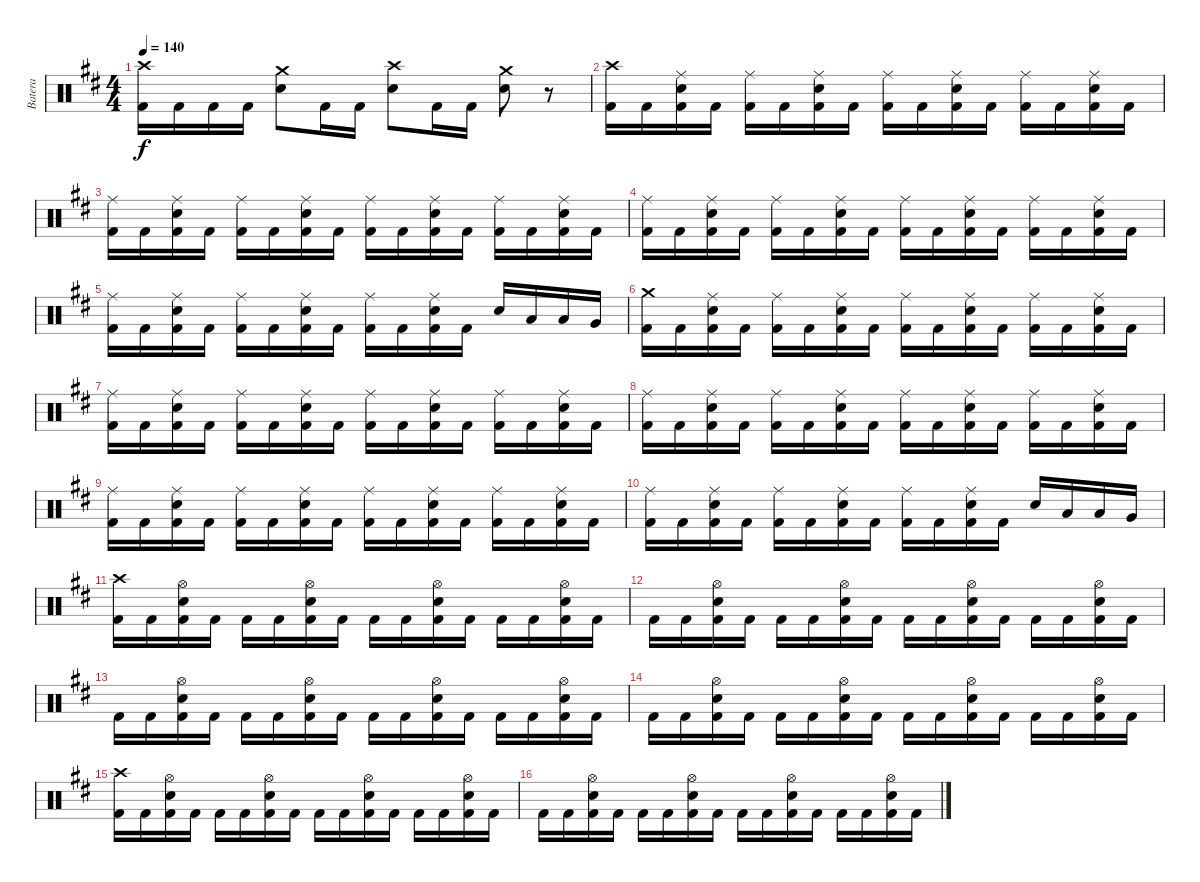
\track ("Batera" "Batera") {instrument percussion}
\staff {score}
\articulation defaults
\ts (4 4)
\tempo 140
\clef neutral
\ks bminor
("Crash high (hit)" "Kick (hit) 2").16{dy f} "Kick (hit) 2".16 "Kick (hit) 2".16 "Kick (hit) 2".16 ("Crash medium (hit)" "Electric Snare (hit)").8 "Kick (hit) 2".16 "Kick (hit) 2".16 ("Crash high (hit)" "Electric Snare (hit)").8 "Kick (hit) 2".16 "Kick (hit) 2".16 ("Crash medium (hit)" "Electric Snare (hit)").8 r.8 |
("Crash high (hit)" "Kick (hit) 2").16 "Kick (hit) 2".16 ("Ride (middle)" "Electric Snare (hit)" "Kick (hit) 2").16 "Kick (hit) 2".16 ("Ride (middle)" "Kick (hit) 2").16 "Kick (hit) 2".16 ("Ride (middle)" "Electric Snare (hit)" "Kick (hit) 2").16 "Kick (hit) 2".16 ("Ride (middle)" "Kick (hit) 2").16 "Kick (hit) 2".16 ("Ride (middle)" "Electric Snare (hit)" "Kick (hit) 2").16 "Kick (hit) 2".16 ("Ride (middle)" "Kick (hit) 2").16 "Kick (hit) 2".16 ("Ride (middle)" "Electric Snare (hit)" "Kick (hit) 2").16 "Kick (hit) 2".16 |
("Ride (middle)" "Kick (hit) 2").16 "Kick (hit) 2".16 ("Ride (middle)" "Electric Snare (hit)" "Kick (hit) 2").16 "Kick (hit) 2".16 ("Ride (middle)" "Kick (hit) 2").16 "Kick (hit) 2".16 ("Ride (middle)" "Electric Snare (hit)" "Kick (hit) 2").16 "Kick (hit) 2".16 ("Ride (middle)" "Kick (hit) 2").16 "Kick (hit) 2".16 ("Ride (middle)" "Electric Snare (hit)" "Kick (hit) 2").16 "Kick (hit) 2".16 ("Ride (middle)" "Kick (hit) 2").16 "Kick (hit) 2".16 ("Ride (middle)" "Electric Snare (hit)" "Kick (hit) 2").16 "Kick (hit) 2".16 |
("Ride (middle)" "Kick (hit) 2").16 "Kick (hit) 2".16 ("Ride (middle)" "Electric Snare (hit)" "Kick (hit) 2").16 "Kick (hit) 2".16 ("Ride (middle)" "Kick (hit) 2").16 "Kick (hit) 2".16 ("Ride (middle)" "Electric Snare (hit)" "Kick (hit) 2").16 "Kick (hit) 2".16 ("Ride (middle)" "Kick (hit) 2").16 "Kick (hit) 2".16 ("Ride (middle)" "Electric Snare (hit)" "Kick (hit) 2").16 "Kick (hit) 2".16 ("Ride (middle)" "Kick (hit) 2").16 "Kick (hit) 2".16 ("Ride (middle)" "Electric Snare (hit)" "Kick (hit) 2").16 "Kick (hit) 2".16 |
("Ride (middle)" "Kick (hit) 2").16 "Kick (hit) 2".16 ("Ride (middle)" "Electric Snare (hit)" "Kick (hit) 2").16 "Kick (hit) 2".16 ("Ride (middle)" "Kick (hit) 2").16 "Kick (hit) 2".16 ("Ride (middle)" "Electric Snare (hit)" "Kick (hit) 2").16 "Kick (hit) 2".16 ("Ride (middle)" "Kick (hit) 2").16 "Kick (hit) 2".16 ("Ride (middle)" "Electric Snare (hit)" "Kick (hit) 2").16 "Kick (hit) 2".16 "Electric Snare (hit)".16 "Low Floor Tom (hit)".16 "Low Tom (hit)".16 "Very Low Tom (hit)".16 |
("Crash medium (hit)" "Kick (hit) 2").16 "Kick (hit) 2".16 ("Ride (middle)" "Electric Snare (hit)" "Kick (hit) 2").16 "Kick (hit) 2".16 ("Ride (middle)" "Kick (hit) 2").16 "Kick (hit) 2".16 ("Ride (middle)" "Electric Snare (hit)" "Kick (hit) 2").16 "Kick (hit) 2".16 ("Ride (middle)" "Kick (hit) 2").16 "Kick (hit) 2".16 ("Ride (middle)" "Electric Snare (hit)" "Kick (hit) 2").16 "Kick (hit) 2".16 ("Ride (middle)" "Kick (hit) 2").16 "Kick (hit) 2".16 ("Ride (middle)" "Electric Snare (hit)" "Kick (hit) 2").16 "Kick (hit) 2".16 |
("Ride (middle)" "Kick (hit) 2").16 "Kick (hit) 2".16 ("Ride (middle)" "Electric Snare (hit)" "Kick (hit) 2").16 "Kick (hit) 2".16 ("Ride (middle)" "Kick (hit) 2").16 "Kick (hit) 2".16 ("Ride (middle)" "Electric Snare (hit)" "Kick (hit) 2").16 "Kick (hit) 2".16 ("Ride (middle)" "Kick (hit) 2").16 "Kick (hit) 2".16 ("Ride (middle)" "Electric Snare (hit)" "Kick (hit) 2").16 "Kick (hit) 2".16 ("Ride (middle)" "Kick (hit) 2").16 "Kick (hit) 2".16 ("Ride (middle)" "Electric Snare (hit)" "Kick (hit) 2").16 "Kick (hit) 2".16 |
("Ride (middle)" "Kick (hit) 2").16 "Kick (hit) 2".16 ("Ride (middle)" "Electric Snare (hit)" "Kick (hit) 2").16 "Kick (hit) 2".16 ("Ride (middle)" "Kick (hit) 2").16 "Kick (hit) 2".16 ("Ride (middle)" "Electric Snare (hit)" "Kick (hit) 2").16 "Kick (hit) 2".16 ("Ride (middle)" "Kick (hit) 2").16 "Kick (hit) 2".16 ("Ride (middle)" "Electric Snare (hit)" "Kick (hit) 2").16 "Kick (hit) 2".16 ("Ride (middle)" "Kick (hit) 2").16 "Kick (hit) 2".16 ("Ride (middle)" "Electric Snare (hit)" "Kick (hit) 2").16 "Kick (hit) 2".16 |
("Ride (middle)" "Kick (hit) 2").16 "Kick (hit) 2".16 ("Ride (middle)" "Electric Snare (hit)" "Kick (hit) 2").16 "Kick (hit) 2".16 ("Ride (middle)" "Kick (hit) 2").16 "Kick (hit) 2".16 ("Ride (middle)" "Electric Snare (hit)" "Kick (hit) 2").16 "Kick (hit) 2".16 ("Ride (middle)" "Kick (hit) 2").16 "Kick (hit) 2".16 ("Ride (middle)" "Electric Snare (hit)" "Kick (hit) 2").16 "Kick (hit) 2".16 ("Ride (middle)" "Kick (hit) 2").16 "Kick (hit) 2".16 ("Ride (middle)" "Electric Snare (hit)" "Kick (hit) 2").16 "Kick (hit) 2".16 |
("Ride (middle)" "Kick (hit) 2").16 "Kick (hit) 2".16 ("Ride (middle)" "Electric Snare (hit)" "Kick (hit) 2").16 "Kick (hit) 2".16 ("Ride (middle)" "Kick (hit) 2").16 "Kick (hit) 2".16 ("Ride (middle)" "Electric Snare (hit)" "Kick (hit) 2").16 "Kick (hit) 2".16 ("Ride (middle)" "Kick (hit) 2").16 "Kick (hit) 2".16 ("Ride (middle)" "Electric Snare (hit)" "Kick (hit) 2").16 "Kick (hit) 2".16 "Electric Snare (hit)".16 "Low Floor Tom (hit)".16 "Low Tom (hit)".16 "Very Low Tom (hit)".16 |
("Crash high (hit)" "Kick (hit) 2").16 "Kick (hit) 2".16 ("Hi-Hat (open)" "Electric Snare (hit)" "Kick (hit) 2").16 "Kick (hit) 2".16 "Kick (hit) 2".16 "Kick (hit) 2".16 ("Hi-Hat (open)" "Electric Snare (hit)" "Kick (hit) 2").16 "Kick (hit) 2".16 "Kick (hit) 2".16 "Kick (hit) 2".16 ("Hi-Hat (open)" "Electric Snare (hit)" "Kick (hit) 2").16 "Kick (hit) 2".16 "Kick (hit) 2".16 "Kick (hit) 2".16 ("Hi-Hat (open)" "Electric Snare (hit)" "Kick (hit) 2").16 "Kick (hit) 2".16 |
"Kick (hit) 2".16 "Kick (hit) 2".16 ("Hi-Hat (open)" "Electric Snare (hit)" "Kick (hit) 2").16 "Kick (hit) 2".16 "Kick (hit) 2".16 "Kick (hit) 2".16 ("Hi-Hat (open)" "Electric Snare (hit)" "Kick (hit) 2").16 "Kick (hit) 2".16 "Kick (hit) 2".16 "Kick (hit) 2".16 ("Hi-Hat (open)" "Electric Snare (hit)" "Kick (hit) 2").16 "Kick (hit) 2".16 "Kick (hit) 2".16 "Kick (hit) 2".16 ("Hi-Hat (open)" "Electric Snare (hit)" "Kick (hit) 2").16 "Kick (hit) 2".16 |
"Kick (hit) 2".16 "Kick (hit) 2".16 ("Hi-Hat (open)" "Electric Snare (hit)" "Kick (hit) 2").16 "Kick (hit) 2".16 "Kick (hit) 2".16 "Kick (hit) 2".16 ("Hi-Hat (open)" "Electric Snare (hit)" "Kick (hit) 2").16 "Kick (hit) 2".16 "Kick (hit) 2".16 "Kick (hit) 2".16 ("Hi-Hat (open)" "Electric Snare (hit)" "Kick (hit) 2").16 "Kick (hit) 2".16 "Kick (hit) 2".16 "Kick (hit) 2".16 ("Hi-Hat (open)" "Electric Snare (hit)" "Kick (hit) 2").16 "Kick (hit) 2".16 |
"Kick (hit) 2".16 "Kick (hit) 2".16 ("Hi-Hat (open)" "Electric Snare (hit)" "Kick (hit) 2").16 "Kick (hit) 2".16 "Kick (hit) 2".16 "Kick (hit) 2".16 ("Hi-Hat (open)" "Electric Snare (hit)" "Kick (hit) 2").16 "Kick (hit) 2".16 "Kick (hit) 2".16 "Kick (hit) 2".16 ("Hi-Hat (open)" "Electric Snare (hit)" "Kick (hit) 2").16 "Kick (hit) 2".16 "Kick (hit) 2".16 "Kick (hit) 2".16 ("Hi-Hat (open)" "Electric Snare (hit)" "Kick (hit) 2").16 "Kick (hit) 2".16 |
("Crash high (hit)" "Kick (hit) 2").16 "Kick (hit) 2".16 ("Hi-Hat (open)" "Electric Snare (hit)" "Kick (hit) 2").16 "Kick (hit) 2".16 "Kick (hit) 2".16 "Kick (hit) 2".16 ("Hi-Hat (open)" "Electric Snare (hit)" "Kick (hit) 2").16 "Kick (hit) 2".16 "Kick (hit) 2".16 "Kick (hit) 2".16 ("Hi-Hat (open)" "Electric Snare (hit)" "Kick (hit) 2").16 "Kick (hit) 2".16 "Kick (hit) 2".16 "Kick (hit) 2".16 ("Hi-Hat (open)" "Electric Snare (hit)" "Kick (hit) 2").16 "Kick (hit) 2".16 |
"Kick (hit) 2".16 "Kick (hit) 2".16 ("Hi-Hat (open)" "Electric Snare (hit)" "Kick (hit) 2").16 "Kick (hit) 2".16 "Kick (hit) 2".16 "Kick (hit) 2".16 ("Hi-Hat (open)" "Electric Snare (hit)" "Kick (hit) 2").16 "Kick (hit) 2".16 "Kick (hit) 2".16 "Kick (hit) 2".16 ("Hi-Hat (open)" "Electric Snare (hit)" "Kick (hit) 2").16 "Kick (hit) 2".16 "Kick (hit) 2".16 "Kick (hit) 2".16 ("Hi-Hat (open)" "Electric Snare (hit)" "Kick (hit) 2").16 "Kick (hit) 2".16
